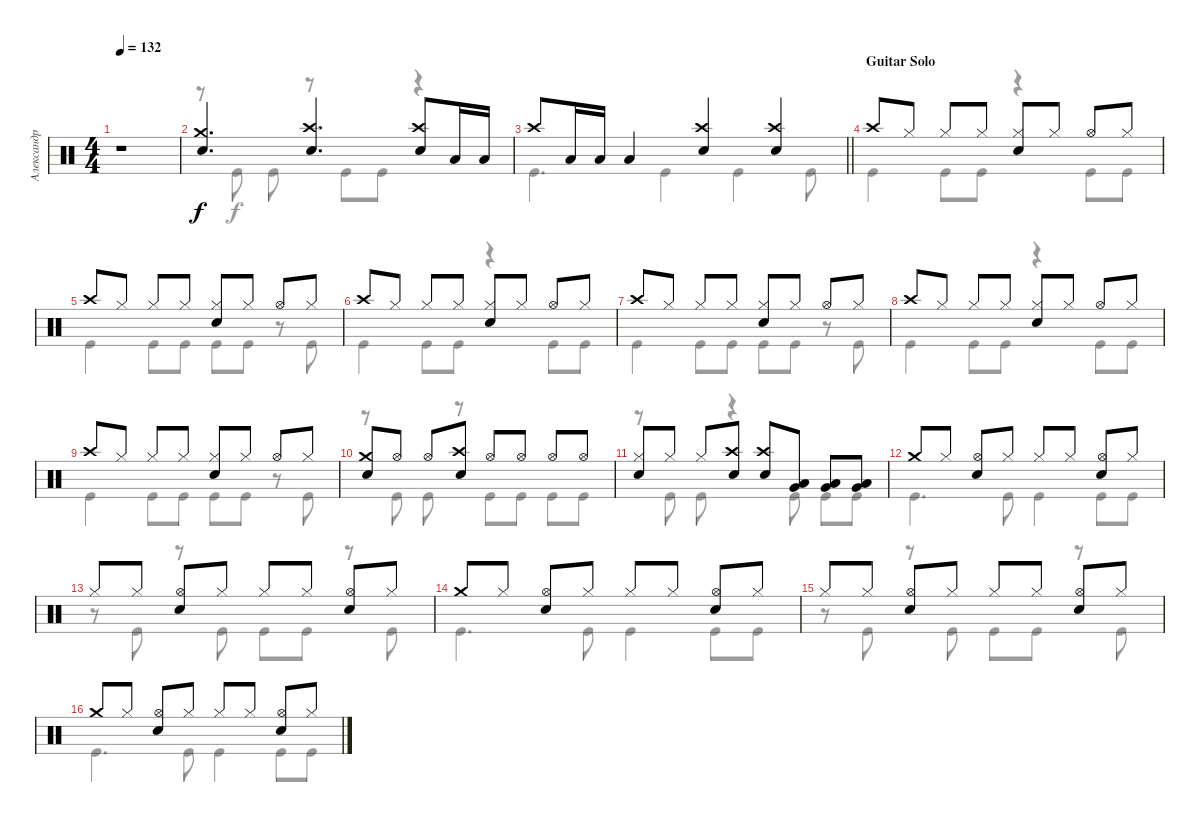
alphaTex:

\track ("Александр Манякин" "Александр ") {instrument percussion}
\staff {score}
\articulation defaults
\voice
\ts (4 4)
\tempo 132
\clef neutral
\ks c
r.1{dy f} |
("Snare (hit) 2" "Crash medium (hit)").4{d} ("Snare (hit) 2" "Crash high (hit)").4{d} ("Snare (hit) 2" "Crash high (hit)").8 "Low Tom (hit)".16 "Low Tom (hit)".16 |
\barLineRight lightlight "Crash high (hit)".8 "Low Tom (hit)".16 "Low Tom (hit)".16 "Low Tom (hit)".4
("Snare (hit) 2" "Crash high (hit)").4 ("Snare (hit) 2" "Crash high (hit)").4 |
\section ("" "Guitar Solo")
"Crash high (hit)".8 "Hi-Hat (closed)".8 "Hi-Hat (closed)".8 "Hi-Hat (closed)".8 ("Hi-Hat (closed)" "Snare (hit) 2").8 "Hi-Hat (closed)".8 "Hi-Hat (open)".8 "Hi-Hat (closed)".8 |
"Crash high (hit)".8 "Hi-Hat (closed)".8 "Hi-Hat (closed)".8 "Hi-Hat (closed)".8 ("Hi-Hat (closed)" "Snare (hit) 2").8 "Hi-Hat (closed)".8 "Hi-Hat (open)".8 "Hi-Hat (closed)".8 |
"Crash high (hit)".8 "Hi-Hat (closed)".8 "Hi-Hat (closed)".8 "Hi-Hat (closed)".8 ("Hi-Hat (closed)" "Snare (hit) 2").8 "Hi-Hat (closed)".8 "Hi-Hat (open)".8 "Hi-Hat (closed)".8 |
"Crash high (hit)".8 "Hi-Hat (closed)".8 "Hi-Hat (closed)".8 "Hi-Hat (closed)".8 ("Hi-Hat (closed)" "Snare (hit) 2").8 "Hi-Hat (closed)".8 "Hi-Hat (open)".8 "Hi-Hat (closed)".8 |
"Crash high (hit)".8 "Hi-Hat (closed)".8 "Hi-Hat (closed)".8 "Hi-Hat (closed)".8 ("Hi-Hat (closed)" "Snare (hit) 2").8 "Hi-Hat (closed)".8 "Hi-Hat (open)".8 "Hi-Hat (closed)".8 |
"Crash high (hit)".8 "Hi-Hat (closed)".8 "Hi-Hat (closed)".8 "Hi-Hat (closed)".8 ("Hi-Hat (closed)" "Snare (hit) 2").8 "Hi-Hat (closed)".8 "Hi-Hat (open)".8 "Hi-Hat (closed)".8 |
("Crash medium (hit)" "Snare (hit) 2").8 "Hi-Hat (open)".8 "Hi-Hat (open)".8 ("Crash high (hit)" "Snare (hit) 2").8 "Hi-Hat (open)".8 "Hi-Hat (open)".8 "Hi-Hat (open)".8 "Hi-Hat (open)".8 |
("Hi-Hat (closed)" "Snare (hit) 2").8 "Hi-Hat (closed)".8 "Hi-Hat (closed)".8 ("Crash high (hit)" "Snare (hit) 2").8 ("Crash high (hit)" "Snare (hit) 2").8 ("Low Tom (hit)" "Very Low Tom (hit)").8 ("Low Tom (hit)" "Very Low Tom (hit)").8 ("Low Tom (hit)" "Very Low Tom (hit)").8 |
"Crash medium (hit)".8 "Hi-Hat (closed)".8 ("Snare (hit) 2" "Hi-Hat (open)").8 "Hi-Hat (closed)".8 "Hi-Hat (closed)".8 "Hi-Hat (closed)".8 ("Snare (hit) 2" "Hi-Hat (open)").8 "Hi-Hat (closed)".8 |
"Hi-Hat (closed)".8 "Hi-Hat (closed)".8 ("Hi-Hat (open)" "Snare (hit) 2").8 "Hi-Hat (closed)".8 "Hi-Hat (closed)".8 "Hi-Hat (closed)".8 ("Hi-Hat (open)" "Snare (hit) 2").8 "Hi-Hat (closed)".8 |
"Crash medium (hit)".8 "Hi-Hat (closed)".8 ("Snare (hit) 2" "Hi-Hat (open)").8 "Hi-Hat (closed)".8 "Hi-Hat (closed)".8 "Hi-Hat (closed)".8 ("Snare (hit) 2" "Hi-Hat (open)").8 "Hi-Hat (closed)".8 |
"Hi-Hat (closed)".8 "Hi-Hat (closed)".8 ("Hi-Hat (open)" "Snare (hit) 2").8 "Hi-Hat (closed)".8 "Hi-Hat (closed)".8 "Hi-Hat (closed)".8 ("Hi-Hat (open)" "Snare (hit) 2").8 "Hi-Hat (closed)".8 |
"Crash medium (hit)".8 "Hi-Hat (closed)".8 ("Snare (hit) 2" "Hi-Hat (open)").8 "Hi-Hat (closed)".8 "Hi-Hat (closed)".8 "Hi-Hat (closed)".8 ("Snare (hit) 2" "Hi-Hat (open)").8 "Hi-Hat (closed)".8
\voice
\clef neutral
\ottava regular
\simile none
\ks c
|
r.8 "Kick (hit)".8 "Kick (hit)".8 r.8 "Kick (hit)".8 "Kick (hit)".8 r.4 |
\barLineRight lightlight "Kick (hit)".4{d} "Kick (hit)".4 "Kick (hit)".4 "Kick (hit)".8
|
"Kick (hit)".4 "Kick (hit)".8 "Kick (hit)".8 r.4 "Kick (hit)".8 "Kick (hit)".8 |
"Kick (hit)".4 "Kick (hit)".8 "Kick (hit)".8 "Kick (hit)".8 "Kick (hit)".8 r.8 "Kick (hit)".8 |
"Kick (hit)".4 "Kick (hit)".8 "Kick (hit)".8 r.4 "Kick (hit)".8 "Kick (hit)".8 |
"Kick (hit)".4 "Kick (hit)".8 "Kick (hit)".8 "Kick (hit)".8 "Kick (hit)".8 r.8 "Kick (hit)".8 |
"Kick (hit)".4 "Kick (hit)".8 "Kick (hit)".8 r.4 "Kick (hit)".8 "Kick (hit)".8 |
"Kick (hit)".4 "Kick (hit)".8 "Kick (hit)".8 "Kick (hit)".8 "Kick (hit)".8 r.8 "Kick (hit)".8 |
r.8 "Kick (hit)".8 "Kick (hit)".8 r.8 "Kick (hit)".8 "Kick (hit)".8 "Kick (hit)".8 "Kick (hit)".8 |
r.8 "Kick (hit)".8 "Kick (hit)".8 r.4 "Kick (hit)".8 "Kick (hit)".8 "Kick (hit)".8 |
"Kick (hit)".4{d} "Kick (hit)".8 "Kick (hit)".4 "Kick (hit)".8 "Kick (hit)".8 |
r.8 "Kick (hit)".8 r.8 "Kick (hit)".8 "Kick (hit)".8 "Kick (hit)".8 r.8 "Kick (hit)".8 |
"Kick (hit)".4{d} "Kick (hit)".8 "Kick (hit)".4 "Kick (hit)".8 "Kick (hit)".8 |
r.8 "Kick (hit)".8 r.8 "Kick (hit)".8 "Kick (hit)".8 "Kick (hit)".8 r.8 "Kick (hit)".8 |
"Kick (hit)".4{d} "Kick (hit)".8 "Kick (hit)".4 "Kick (hit)".8 "Kick (hit)".8
